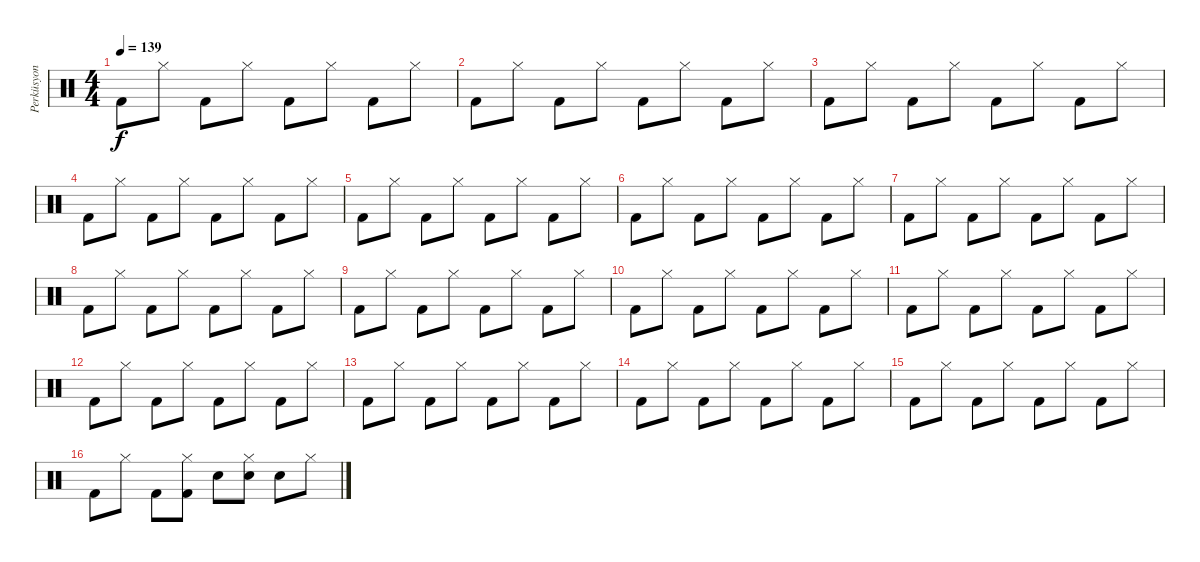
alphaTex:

\track ("Perküsyon" "Perküsyon") {instrument percussion}
\staff {score}
\articulation defaults
\ts (4 4)
\tempo 139
\clef neutral
\ks c "Kick (hit) 2".8{dy f} "Hi-Hat (closed)".8 "Kick (hit) 2".8 "Hi-Hat (closed)".8 "Kick (hit) 2".8 "Hi-Hat (closed)".8 "Kick (hit) 2".8 "Hi-Hat (closed)".8
|
"Kick (hit) 2".8 "Hi-Hat (closed)".8 "Kick (hit) 2".8 "Hi-Hat (closed)".8 "Kick (hit) 2".8 "Hi-Hat (closed)".8 "Kick (hit) 2".8 "Hi-Hat (closed)".8 |
"Kick (hit) 2".8 "Hi-Hat (closed)".8 "Kick (hit) 2".8 "Hi-Hat (closed)".8 "Kick (hit) 2".8 "Hi-Hat (closed)".8 "Kick (hit) 2".8 "Hi-Hat (closed)".8 |
"Kick (hit) 2".8 "Hi-Hat (closed)".8 "Kick (hit) 2".8 "Hi-Hat (closed)".8 "Kick (hit) 2".8 "Hi-Hat (closed)".8 "Kick (hit) 2".8 "Hi-Hat (closed)".8 |
"Kick (hit) 2".8 "Hi-Hat (closed)".8 "Kick (hit) 2".8 "Hi-Hat (closed)".8 "Kick (hit) 2".8 "Hi-Hat (closed)".8 "Kick (hit) 2".8 "Hi-Hat (closed)".8 |
"Kick (hit) 2".8 "Hi-Hat (closed)".8 "Kick (hit) 2".8 "Hi-Hat (closed)".8 "Kick (hit) 2".8 "Hi-Hat (closed)".8 "Kick (hit) 2".8 "Hi-Hat (closed)".8 |
"Kick (hit) 2".8 "Hi-Hat (closed)".8 "Kick (hit) 2".8 "Hi-Hat (closed)".8 "Kick (hit) 2".8 "Hi-Hat (closed)".8 "Kick (hit) 2".8 "Hi-Hat (closed)".8 |
"Kick (hit) 2".8 "Hi-Hat (closed)".8 "Kick (hit) 2".8 "Hi-Hat (closed)".8 "Kick (hit) 2".8 "Hi-Hat (closed)".8 "Kick (hit) 2".8 "Hi-Hat (closed)".8 |
"Kick (hit) 2".8 "Hi-Hat (closed)".8 "Kick (hit) 2".8 "Hi-Hat (closed)".8 "Kick (hit) 2".8 "Hi-Hat (closed)".8 "Kick (hit) 2".8 "Hi-Hat (closed)".8 |
"Kick (hit) 2".8 "Hi-Hat (closed)".8 "Kick (hit) 2".8 "Hi-Hat (closed)".8 "Kick (hit) 2".8 "Hi-Hat (closed)".8 "Kick (hit) 2".8 "Hi-Hat (closed)".8 |
"Kick (hit) 2".8 "Hi-Hat (closed)".8 "Kick (hit) 2".8 "Hi-Hat (closed)".8 "Kick (hit) 2".8 "Hi-Hat (closed)".8 "Kick (hit) 2".8 "Hi-Hat (closed)".8 |
"Kick (hit) 2".8 "Hi-Hat (closed)".8 "Kick (hit) 2".8 "Hi-Hat (closed)".8 "Kick (hit) 2".8 "Hi-Hat (closed)".8 "Kick (hit) 2".8 "Hi-Hat (closed)".8 |
"Kick (hit) 2".8 "Hi-Hat (closed)".8 "Kick (hit) 2".8 "Hi-Hat (closed)".8 "Kick (hit) 2".8 "Hi-Hat (closed)".8 "Kick (hit) 2".8 "Hi-Hat (closed)".8 |
"Kick (hit) 2".8 "Hi-Hat (closed)".8 "Kick (hit) 2".8 "Hi-Hat (closed)".8 "Kick (hit) 2".8 "Hi-Hat (closed)".8 "Kick (hit) 2".8 "Hi-Hat (closed)".8 |
"Kick (hit) 2".8 "Hi-Hat (closed)".8 "Kick (hit) 2".8 "Hi-Hat (closed)".8 "Kick (hit) 2".8 "Hi-Hat (closed)".8 "Kick (hit) 2".8 "Hi-Hat (closed)".8 |
"Kick (hit) 2".8 "Hi-Hat (closed)".8 "Kick (hit) 2".8 ("Hi-Hat (closed)" "Kick (hit) 2").8 "Snare (hit) 2".8 ("Hi-Hat (closed)" "Snare (hit) 2").8 "Snare (hit) 2".8 "Hi-Hat (closed)".8
